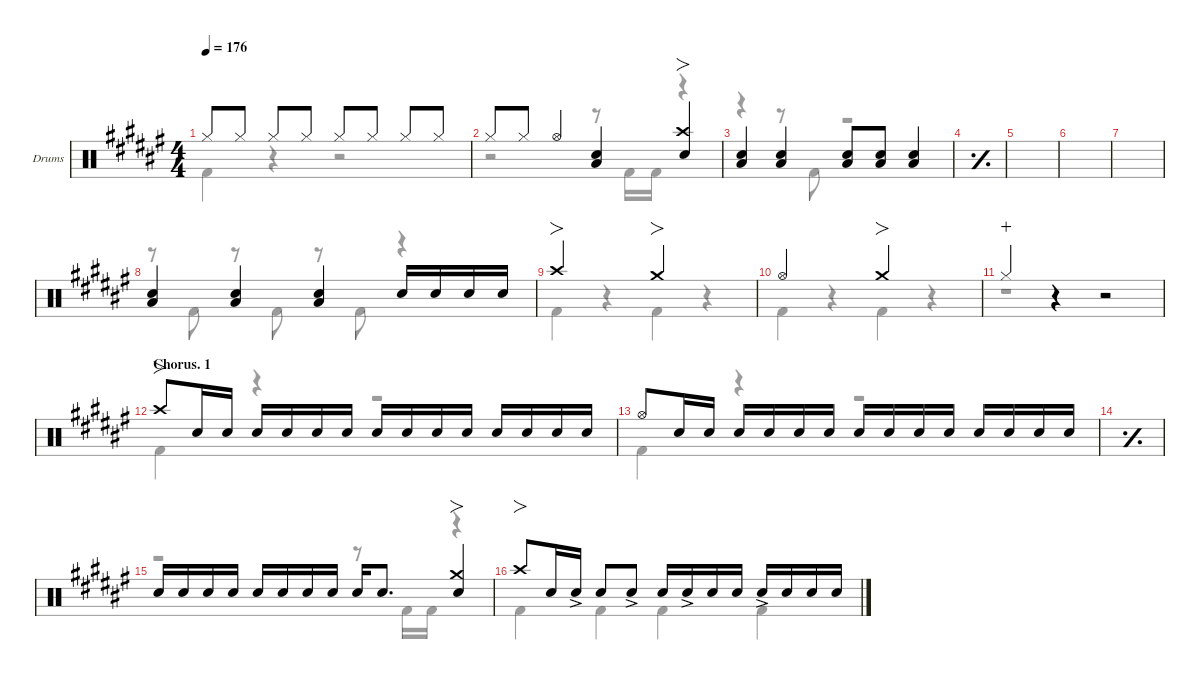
\defaultSystemsLayout 4
\hideDynamics
\bracketExtendMode nobrackets
\firstSystemTrackNameOrientation horizontal
\track ("Drums" "Drums") {defaultSystemsLayout 4 instrument percussion}
\staff {score}
\articulation defaults
\voice
\ts (4 4)
\tempo 176
\clef neutral
\ks f# "Hi-Hat (closed)"{acc forcenatural}.8{dy f beam Up} "Hi-Hat (closed)"{acc forcenatural}.8{dy mp beam Up} "Hi-Hat (closed)"{acc forcenatural}.8{dy f beam Up} "Hi-Hat (closed)"{acc forcenatural}.8{dy mp beam Up} "Hi-Hat (closed)"{acc forcenatural}.8{dy f beam Up} "Hi-Hat (closed)"{acc forcenatural}.8{dy mp beam Up} "Hi-Hat (closed)"{acc forcenatural}.8{dy f beam Up} "Hi-Hat (closed)"{acc forcenatural}.8{dy mp beam Up}
|
"Hi-Hat (closed)"{acc forcenatural}.8{dy f beam Up} "Hi-Hat (closed)"{acc forcenatural}.8{dy mp beam Up} "Hi-Hat (open)"{acc forcenatural}.4{dy f beam Up} ("Snare (hit) 2"{acc forcenatural} "Low Tom (hit)"{acc forcenatural}).4{beam Up} ("Snare (hit) 2"{acc forcenatural} "Crash high (hit)"{acc forcenatural}).4{fo beam Up} |
("Snare (hit) 2"{acc forcenatural} "Low Tom (hit)"{acc forcenatural}).4{beam Up} ("Snare (hit) 2"{acc forcenatural} "Low Tom (hit)"{acc forcenatural}).4{beam Up} ("Snare (hit) 2"{acc forcenatural} "Low Tom (hit)"{acc forcenatural}).8{beam Up} ("Snare (hit) 2"{acc forcenatural} "Low Tom (hit)"{acc forcenatural}).8{beam Up} ("Snare (hit) 2"{acc forcenatural} "Low Tom (hit)"{acc forcenatural}).4{beam Up} |
\simile simple
|
|
|
|
\simile none
("Snare (hit) 2"{acc forcenatural} "Low Tom (hit)"{acc forcenatural}).4{beam Up} ("Snare (hit) 2"{acc forcenatural} "Low Tom (hit)"{acc forcenatural}).4{beam Up} ("Snare (hit) 2"{acc forcenatural} "Low Tom (hit)"{acc forcenatural}).4{beam Up} "Snare (hit) 2"{acc forcenatural}.16{beam Up} "Snare (hit) 2"{acc forcenatural}.16{dy mf beam Up} "Snare (hit) 2"{acc forcenatural}.16{dy f beam Up} "Snare (hit) 2"{acc forcenatural}.16{dy mf beam Up} |
"Crash high (hit)"{acc forcenatural}.2{fo dy f beam Up} "Crash medium (hit)"{acc forcenatural}.2{fo beam Up} |
"Hi-Hat (open)"{acc forcenatural}.2{beam Up} "Crash medium (hit)"{acc forcenatural}.2{fo beam Up} |
"Hi-Hat (closed)"{acc forcenatural}.4{dy mp wahc beam Up} r.4{beam Up} r.2{beam Up} |
\section ("" "Chorus. 1")
"Crash high (hit)"{acc forcenatural}.8{fo dy f beam Up} "Snare (hit) 2"{acc forcenatural}.16{dy mf beam Up} "Snare (hit) 2"{acc forcenatural}.16{dy mp beam Up beam split} "Snare (hit) 2"{acc forcenatural}.16{dy f beam Up} "Snare (hit) 2"{acc forcenatural}.16{dy mp beam Up} "Snare (hit) 2"{acc forcenatural}.16{dy mf beam Up} "Snare (hit) 2"{acc forcenatural}.16{dy mp beam Up} "Snare (hit) 2"{acc forcenatural}.16{dy f beam Up} "Snare (hit) 2"{acc forcenatural}.16{dy mp beam Up} "Snare (hit) 2"{acc forcenatural}.16{dy mf beam Up} "Snare (hit) 2"{acc forcenatural}.16{dy mp beam Up beam split} "Snare (hit) 2"{acc forcenatural}.16{dy f beam Up} "Snare (hit) 2"{acc forcenatural}.16{dy mp beam Up} "Snare (hit) 2"{acc forcenatural}.16{dy mf beam Up} "Snare (hit) 2"{acc forcenatural}.16{dy mp beam Up} |
"Hi-Hat (open)"{acc forcenatural}.8{dy f beam Up} "Snare (hit) 2"{acc forcenatural}.16{dy mf beam Up} "Snare (hit) 2"{acc forcenatural}.16{dy mp beam Up beam split} "Snare (hit) 2"{acc forcenatural}.16{dy f beam Up} "Snare (hit) 2"{acc forcenatural}.16{dy mp beam Up} "Snare (hit) 2"{acc forcenatural}.16{dy mf beam Up} "Snare (hit) 2"{acc forcenatural}.16{dy mp beam Up} "Snare (hit) 2"{acc forcenatural}.16{dy f beam Up} "Snare (hit) 2"{acc forcenatural}.16{dy mp beam Up} "Snare (hit) 2"{acc forcenatural}.16{dy mf beam Up} "Snare (hit) 2"{acc forcenatural}.16{dy mp beam Up beam split} "Snare (hit) 2"{acc forcenatural}.16{dy f beam Up} "Snare (hit) 2"{acc forcenatural}.16{dy mp beam Up} "Snare (hit) 2"{acc forcenatural}.16{dy mf beam Up} "Snare (hit) 2"{acc forcenatural}.16{dy mp beam Up} |
\simile simple
|
\simile none "Snare (hit) 2"{acc forcenatural}.16{dy f beam Up} "Snare (hit) 2"{acc forcenatural}.16{dy mp beam Up} "Snare (hit) 2"{acc forcenatural}.16{dy mf beam Up} "Snare (hit) 2"{acc forcenatural}.16{dy mp beam Up beam split} "Snare (hit) 2"{acc forcenatural}.16{dy f beam Up} "Snare (hit) 2"{acc forcenatural}.16{dy mp beam Up} "Snare (hit) 2"{acc forcenatural}.16{dy mf beam Up} "Snare (hit) 2"{acc forcenatural}.16{dy mp beam Up beam split} "Snare (hit) 2"{acc forcenatural}.16{dy f beam Up} "Snare (hit) 2"{acc forcenatural}.8{d dy mp beam Up beam split}
("Snare (hit) 2"{acc forcenatural} "Crash medium (hit)"{acc forcenatural}).4{fo dy f beam Up} |
"Crash high (hit)"{acc forcenatural}.8{fo beam Up} "Snare (hit) 2"{acc forcenatural}.16{dy mf beam Up} "Snare (hit) 2"{ac acc forcenatural}.16{dy f beam Up beam split} "Snare (hit) 2"{acc forcenatural}.8{beam Up} "Snare (hit) 2"{ac acc forcenatural}.8{beam Up} "Snare (hit) 2"{acc forcenatural}.16{beam Up} "Snare (hit) 2"{ac acc forcenatural}.16{beam Up} "Snare (hit) 2"{acc forcenatural}.16{dy mf beam Up} "Snare (hit) 2"{acc forcenatural}.16{dy mp beam Up beam split} "Snare (hit) 2"{ac acc forcenatural}.16{dy f beam Up} "Snare (hit) 2"{acc forcenatural}.16{dy mp beam Up} "Snare (hit) 2"{acc forcenatural}.16{dy mf beam Up} "Snare (hit) 2"{acc forcenatural}.16{dy mp beam Up}
\voice
\clef neutral
\ottava regular
\simile none
\ks f# "Kick (hit) 2"{acc forcenatural}.4{dy f beam Down}
r.4{beam Down} r.2{beam Down} |
r.2{beam Down} r.8{beam Down} "Kick (hit) 2"{acc forcenatural}.16{beam Down} "Kick (hit) 2"{acc forcenatural}.16{beam Down} r.4{beam Down} |
r.4{beam Down} r.8{beam Down} "Kick (hit) 2"{acc forcenatural}.8{beam Down} r.2{beam Down} |
\simile simple
|
|
|
|
\simile none
r.8{beam Down} "Kick (hit) 2"{acc forcenatural}.8{beam Down} r.8{beam Down} "Kick (hit) 2"{acc forcenatural}.8{beam Down} r.8{beam Down} "Kick (hit) 2"{acc forcenatural}.8{beam Down} r.4{beam Down} |
"Kick (hit) 2"{acc forcenatural}.4{beam Down} r.4{beam Down} "Kick (hit) 2"{acc forcenatural}.4{beam Down} r.4{beam Down} |
"Kick (hit) 2"{acc forcenatural}.4{beam Down} r.4{beam Down} "Kick (hit) 2"{acc forcenatural}.4{beam Down} r.4{beam Down} |
r.1{beam Down} |
"Kick (hit) 2"{acc forcenatural}.4{beam Down} r.4{beam Down} r.2{beam Down} |
"Kick (hit) 2"{acc forcenatural}.4{beam Down} r.4{beam Down} r.2{beam Down} |
\simile simple
|
\simile none
r.2{beam Down} r.8{beam Down} "Kick (hit) 2"{acc forcenatural}.16{beam Down} "Kick (hit) 2"{acc forcenatural}.16{beam Down} r.4{beam Down} |
"Kick (hit) 2"{acc forcenatural}.4{beam Down} "Kick (hit) 2"{acc forcenatural}.4{beam Down} "Kick (hit) 2"{acc forcenatural}.4{beam Down} "Kick (hit) 2"{acc forcenatural}.4{beam Down}
